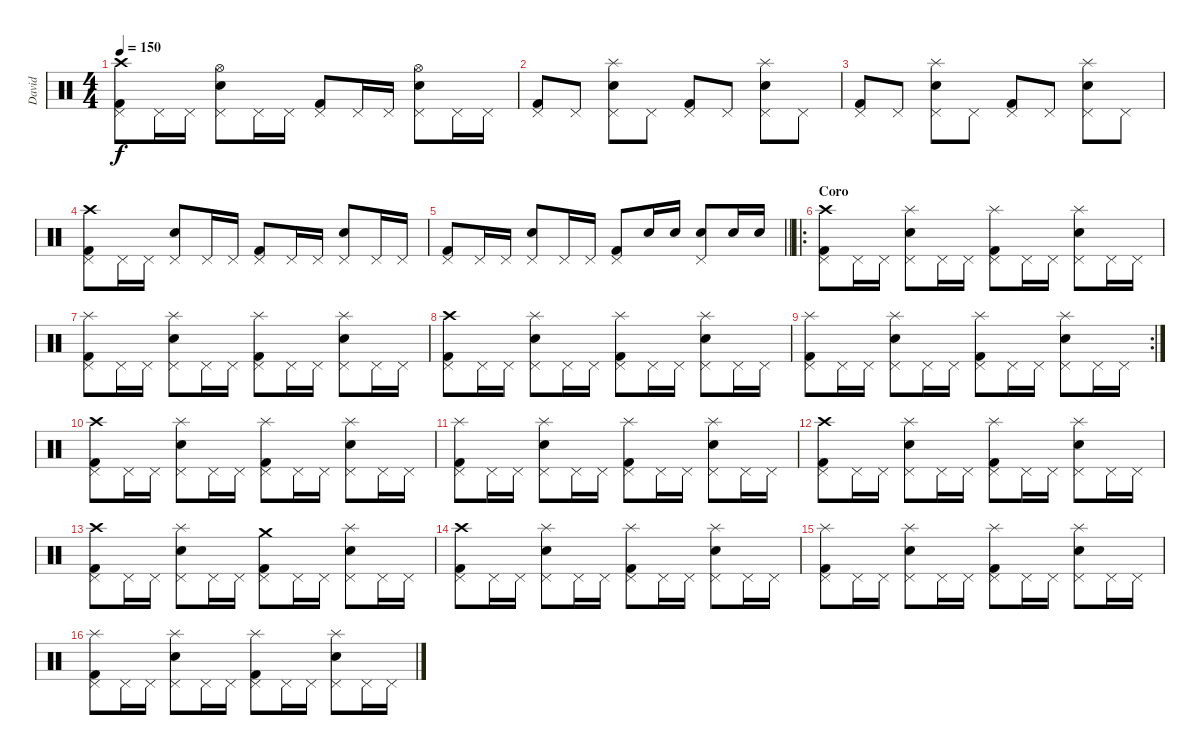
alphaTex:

\track ("David" "David") {instrument percussion}
\staff {score}
\articulation defaults
\ts (4 4)
\tempo 150
\clef neutral
\ks c
("Kick (hit) 2" "Pedal Hi-Hat (hit)" "Crash high (hit)").8{dy f} "Pedal Hi-Hat (hit)".16 "Pedal Hi-Hat (hit)".16 ("Snare (hit) 2" "Pedal Hi-Hat (hit)" "Hi-Hat (open)").8 "Pedal Hi-Hat (hit)".16 "Pedal Hi-Hat (hit)".16 ("Kick (hit) 2" "Pedal Hi-Hat (hit)").8 "Pedal Hi-Hat (hit)".16 "Pedal Hi-Hat (hit)".16 ("Snare (hit) 2" "Pedal Hi-Hat (hit)" "Hi-Hat (open)").8 "Pedal Hi-Hat (hit)".16 "Pedal Hi-Hat (hit)".16 |
("Kick (hit) 2" "Pedal Hi-Hat (hit)").8 "Pedal Hi-Hat (hit)".8 ("Snare (hit) 2" "Pedal Hi-Hat (hit)" "Splash (hit)").8 "Pedal Hi-Hat (hit)".8 ("Kick (hit) 2" "Pedal Hi-Hat (hit)").8 "Pedal Hi-Hat (hit)".8 ("Snare (hit) 2" "Pedal Hi-Hat (hit)" "Splash (hit)").8 "Pedal Hi-Hat (hit)".8 |
("Kick (hit) 2" "Pedal Hi-Hat (hit)").8 "Pedal Hi-Hat (hit)".8 ("Snare (hit) 2" "Pedal Hi-Hat (hit)" "Splash (hit)").8 "Pedal Hi-Hat (hit)".8 ("Kick (hit) 2" "Pedal Hi-Hat (hit)").8 "Pedal Hi-Hat (hit)".8 ("Snare (hit) 2" "Pedal Hi-Hat (hit)" "Splash (hit)").8 "Pedal Hi-Hat (hit)".8 |
("Kick (hit) 2" "Pedal Hi-Hat (hit)" "Crash high (hit)").8 "Pedal Hi-Hat (hit)".16 "Pedal Hi-Hat (hit)".16 ("Snare (hit) 2" "Pedal Hi-Hat (hit)").8 "Pedal Hi-Hat (hit)".16 "Pedal Hi-Hat (hit)".16 ("Kick (hit) 2" "Pedal Hi-Hat (hit)").8 "Pedal Hi-Hat (hit)".16 "Pedal Hi-Hat (hit)".16 ("Snare (hit) 2" "Pedal Hi-Hat (hit)").8 "Pedal Hi-Hat (hit)".16 "Pedal Hi-Hat (hit)".16 |
\barLineRight lightlight
("Kick (hit) 2" "Pedal Hi-Hat (hit)").8 "Pedal Hi-Hat (hit)".16 "Pedal Hi-Hat (hit)".16 ("Snare (hit) 2" "Pedal Hi-Hat (hit)").8 "Pedal Hi-Hat (hit)".16 "Pedal Hi-Hat (hit)".16 ("Kick (hit) 2" "Pedal Hi-Hat (hit)").8 "Snare (hit) 2".16 "Snare (hit) 2".16 ("Snare (hit) 2" "Pedal Hi-Hat (hit)").8 "Snare (hit) 2".16 "Snare (hit) 2".16 |
\ro
\section ("" "Coro")
("Kick (hit) 2" "Pedal Hi-Hat (hit)" "Crash high (hit)").8 "Pedal Hi-Hat (hit)".16 "Pedal Hi-Hat (hit)".16 ("Snare (hit) 2" "Pedal Hi-Hat (hit)" "Splash (hit)").8 "Pedal Hi-Hat (hit)".16 "Pedal Hi-Hat (hit)".16 ("Kick (hit) 2" "Pedal Hi-Hat (hit)" "Splash (hit)").8 "Pedal Hi-Hat (hit)".16 "Pedal Hi-Hat (hit)".16 ("Snare (hit) 2" "Pedal Hi-Hat (hit)" "Splash (hit)").8 "Pedal Hi-Hat (hit)".16 "Pedal Hi-Hat (hit)".16 |
("Kick (hit) 2" "Pedal Hi-Hat (hit)" "Splash (hit)").8 "Pedal Hi-Hat (hit)".16 "Pedal Hi-Hat (hit)".16 ("Snare (hit) 2" "Pedal Hi-Hat (hit)" "Splash (hit)").8 "Pedal Hi-Hat (hit)".16 "Pedal Hi-Hat (hit)".16 ("Kick (hit) 2" "Pedal Hi-Hat (hit)" "Splash (hit)").8 "Pedal Hi-Hat (hit)".16 "Pedal Hi-Hat (hit)".16 ("Snare (hit) 2" "Pedal Hi-Hat (hit)" "Splash (hit)").8 "Pedal Hi-Hat (hit)".16 "Pedal Hi-Hat (hit)".16 |
("Kick (hit) 2" "Pedal Hi-Hat (hit)" "Crash high (hit)").8 "Pedal Hi-Hat (hit)".16 "Pedal Hi-Hat (hit)".16 ("Snare (hit) 2" "Pedal Hi-Hat (hit)" "Splash (hit)").8 "Pedal Hi-Hat (hit)".16 "Pedal Hi-Hat (hit)".16 ("Kick (hit) 2" "Pedal Hi-Hat (hit)" "Splash (hit)").8 "Pedal Hi-Hat (hit)".16 "Pedal Hi-Hat (hit)".16 ("Snare (hit) 2" "Pedal Hi-Hat (hit)" "Splash (hit)").8 "Pedal Hi-Hat (hit)".16 "Pedal Hi-Hat (hit)".16 |
\rc 2
("Kick (hit) 2" "Pedal Hi-Hat (hit)" "Splash (hit)").8 "Pedal Hi-Hat (hit)".16 "Pedal Hi-Hat (hit)".16 ("Snare (hit) 2" "Pedal Hi-Hat (hit)" "Splash (hit)").8 "Pedal Hi-Hat (hit)".16 "Pedal Hi-Hat (hit)".16 ("Kick (hit) 2" "Pedal Hi-Hat (hit)" "Splash (hit)").8 "Pedal Hi-Hat (hit)".16 "Pedal Hi-Hat (hit)".16 ("Snare (hit) 2" "Pedal Hi-Hat (hit)" "Splash (hit)").8 "Pedal Hi-Hat (hit)".16 "Pedal Hi-Hat (hit)".16 |
("Kick (hit) 2" "Pedal Hi-Hat (hit)" "Crash high (hit)").8 "Pedal Hi-Hat (hit)".16 "Pedal Hi-Hat (hit)".16 ("Snare (hit) 2" "Pedal Hi-Hat (hit)" "Splash (hit)").8 "Pedal Hi-Hat (hit)".16 "Pedal Hi-Hat (hit)".16 ("Kick (hit) 2" "Pedal Hi-Hat (hit)" "Splash (hit)").8 "Pedal Hi-Hat (hit)".16 "Pedal Hi-Hat (hit)".16 ("Snare (hit) 2" "Pedal Hi-Hat (hit)" "Splash (hit)").8 "Pedal Hi-Hat (hit)".16 "Pedal Hi-Hat (hit)".16 |
("Kick (hit) 2" "Pedal Hi-Hat (hit)" "Splash (hit)").8 "Pedal Hi-Hat (hit)".16 "Pedal Hi-Hat (hit)".16 ("Snare (hit) 2" "Pedal Hi-Hat (hit)" "Splash (hit)").8 "Pedal Hi-Hat (hit)".16 "Pedal Hi-Hat (hit)".16 ("Kick (hit) 2" "Pedal Hi-Hat (hit)" "Splash (hit)").8 "Pedal Hi-Hat (hit)".16 "Pedal Hi-Hat (hit)".16 ("Snare (hit) 2" "Pedal Hi-Hat (hit)" "Splash (hit)").8 "Pedal Hi-Hat (hit)".16 "Pedal Hi-Hat (hit)".16 |
("Kick (hit) 2" "Pedal Hi-Hat (hit)" "Crash high (hit)").8 "Pedal Hi-Hat (hit)".16 "Pedal Hi-Hat (hit)".16 ("Snare (hit) 2" "Pedal Hi-Hat (hit)" "Splash (hit)").8 "Pedal Hi-Hat (hit)".16 "Pedal Hi-Hat (hit)".16 ("Kick (hit) 2" "Pedal Hi-Hat (hit)" "Splash (hit)").8 "Pedal Hi-Hat (hit)".16 "Pedal Hi-Hat (hit)".16 ("Snare (hit) 2" "Pedal Hi-Hat (hit)" "Splash (hit)").8 "Pedal Hi-Hat (hit)".16 "Pedal Hi-Hat (hit)".16 |
("Kick (hit) 2" "Pedal Hi-Hat (hit)" "Crash high (hit)").8 "Pedal Hi-Hat (hit)".16 "Pedal Hi-Hat (hit)".16 ("Snare (hit) 2" "Pedal Hi-Hat (hit)" "Splash (hit)").8 "Pedal Hi-Hat (hit)".16 "Pedal Hi-Hat (hit)".16 ("Kick (hit) 2" "Pedal Hi-Hat (hit)" "Crash medium (hit)").8 "Pedal Hi-Hat (hit)".16 "Pedal Hi-Hat (hit)".16 ("Snare (hit) 2" "Pedal Hi-Hat (hit)" "Splash (hit)").8 "Pedal Hi-Hat (hit)".16 "Pedal Hi-Hat (hit)".16 |
("Kick (hit) 2" "Pedal Hi-Hat (hit)" "Crash high (hit)").8 "Pedal Hi-Hat (hit)".16 "Pedal Hi-Hat (hit)".16 ("Snare (hit) 2" "Pedal Hi-Hat (hit)" "Splash (hit)").8 "Pedal Hi-Hat (hit)".16 "Pedal Hi-Hat (hit)".16 ("Kick (hit) 2" "Pedal Hi-Hat (hit)" "Splash (hit)").8 "Pedal Hi-Hat (hit)".16 "Pedal Hi-Hat (hit)".16 ("Snare (hit) 2" "Pedal Hi-Hat (hit)" "Splash (hit)").8 "Pedal Hi-Hat (hit)".16 "Pedal Hi-Hat (hit)".16 |
("Kick (hit) 2" "Pedal Hi-Hat (hit)" "Splash (hit)").8 "Pedal Hi-Hat (hit)".16 "Pedal Hi-Hat (hit)".16 ("Snare (hit) 2" "Pedal Hi-Hat (hit)" "Splash (hit)").8 "Pedal Hi-Hat (hit)".16 "Pedal Hi-Hat (hit)".16 ("Kick (hit) 2" "Pedal Hi-Hat (hit)" "Splash (hit)").8 "Pedal Hi-Hat (hit)".16 "Pedal Hi-Hat (hit)".16 ("Snare (hit) 2" "Pedal Hi-Hat (hit)" "Splash (hit)").8 "Pedal Hi-Hat (hit)".16 "Pedal Hi-Hat (hit)".16 |
("Kick (hit) 2" "Pedal Hi-Hat (hit)" "Splash (hit)").8 "Pedal Hi-Hat (hit)".16 "Pedal Hi-Hat (hit)".16 ("Snare (hit) 2" "Pedal Hi-Hat (hit)" "Splash (hit)").8 "Pedal Hi-Hat (hit)".16 "Pedal Hi-Hat (hit)".16 ("Kick (hit) 2" "Pedal Hi-Hat (hit)" "Splash (hit)").8 "Pedal Hi-Hat (hit)".16 "Pedal Hi-Hat (hit)".16 ("Snare (hit) 2" "Pedal Hi-Hat (hit)" "Splash (hit)").8 "Pedal Hi-Hat (hit)".16 "Pedal Hi-Hat (hit)".16
